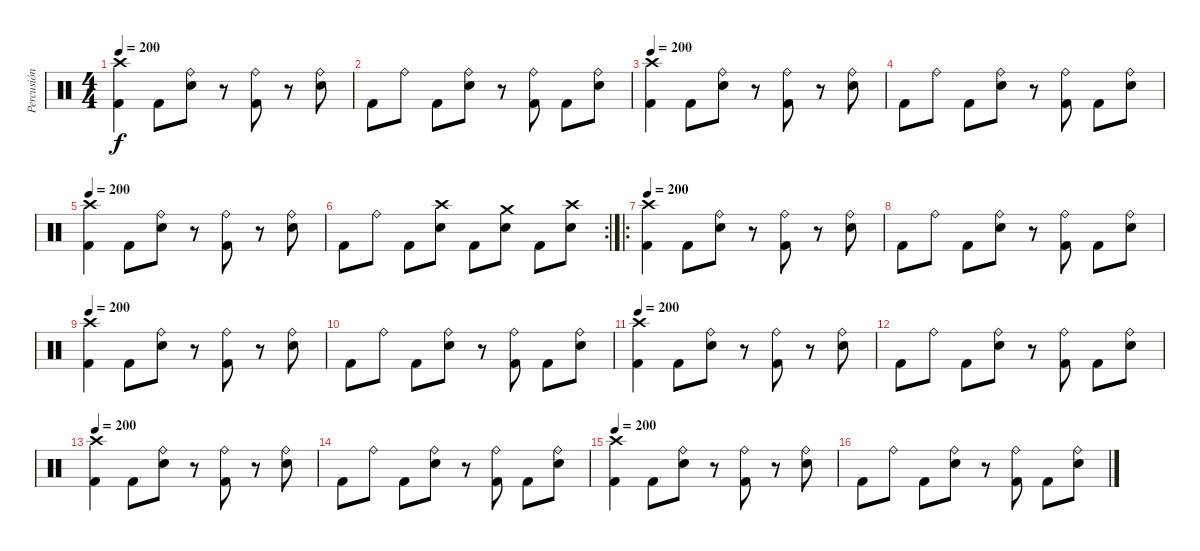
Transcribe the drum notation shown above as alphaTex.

\track ("Percusión" "Percusión") {instrument percussion}
\staff {score}
\articulation defaults
\ts (4 4)
\tempo 200
\clef neutral
\ks c
("Crash high (hit)" "Kick (hit) 2").4{dy f} "Kick (hit) 2".8 ("Ride (bell)" "Electric Snare (hit)").8 r.8 ("Ride (bell)" "Kick (hit) 2").8 r.8 ("Ride (bell)" "Electric Snare (hit)").8 |
"Kick (hit) 2".8 "Ride (bell)".8 "Kick (hit) 2".8 ("Ride (bell)" "Electric Snare (hit)").8 r.8 ("Ride (bell)" "Kick (hit) 2").8 "Kick (hit) 2".8 ("Ride (bell)" "Electric Snare (hit)").8 |
\tempo 200
("Crash high (hit)" "Kick (hit) 2").4 "Kick (hit) 2".8 ("Ride (bell)" "Electric Snare (hit)").8 r.8 ("Ride (bell)" "Kick (hit) 2").8 r.8 ("Ride (bell)" "Electric Snare (hit)").8 |
"Kick (hit) 2".8 "Ride (bell)".8 "Kick (hit) 2".8 ("Ride (bell)" "Electric Snare (hit)").8 r.8 ("Ride (bell)" "Kick (hit) 2").8 "Kick (hit) 2".8 ("Ride (bell)" "Electric Snare (hit)").8 |
\tempo 200
("Crash high (hit)" "Kick (hit) 2").4 "Kick (hit) 2".8 ("Ride (bell)" "Electric Snare (hit)").8 r.8 ("Ride (bell)" "Kick (hit) 2").8 r.8 ("Ride (bell)" "Electric Snare (hit)").8 |
\rc 2 "Kick (hit) 2".8 "Ride (bell)".8 "Kick (hit) 2".8
("Crash high (hit)" "Electric Snare (hit)").8 "Kick (hit) 2".8 ("Crash medium (hit)" "Electric Snare (hit)").8 "Kick (hit) 2".8 ("Crash high (hit)" "Electric Snare (hit)").8 |
\ro
\tempo 200
("Crash high (hit)" "Kick (hit) 2").4 "Kick (hit) 2".8 ("Ride (bell)" "Electric Snare (hit)").8 r.8 ("Ride (bell)" "Kick (hit) 2").8 r.8 ("Ride (bell)" "Electric Snare (hit)").8 |
"Kick (hit) 2".8 "Ride (bell)".8 "Kick (hit) 2".8 ("Ride (bell)" "Electric Snare (hit)").8 r.8 ("Ride (bell)" "Kick (hit) 2").8 "Kick (hit) 2".8 ("Ride (bell)" "Electric Snare (hit)").8 |
\tempo 200
("Crash high (hit)" "Kick (hit) 2").4 "Kick (hit) 2".8 ("Ride (bell)" "Electric Snare (hit)").8 r.8 ("Ride (bell)" "Kick (hit) 2").8 r.8 ("Ride (bell)" "Electric Snare (hit)").8 |
"Kick (hit) 2".8 "Ride (bell)".8 "Kick (hit) 2".8 ("Ride (bell)" "Electric Snare (hit)").8 r.8 ("Ride (bell)" "Kick (hit) 2").8 "Kick (hit) 2".8 ("Ride (bell)" "Electric Snare (hit)").8 |
\tempo 200
("Crash high (hit)" "Kick (hit) 2").4 "Kick (hit) 2".8 ("Ride (bell)" "Electric Snare (hit)").8 r.8 ("Ride (bell)" "Kick (hit) 2").8 r.8 ("Ride (bell)" "Electric Snare (hit)").8 |
"Kick (hit) 2".8 "Ride (bell)".8 "Kick (hit) 2".8 ("Ride (bell)" "Electric Snare (hit)").8 r.8 ("Ride (bell)" "Kick (hit) 2").8 "Kick (hit) 2".8 ("Ride (bell)" "Electric Snare (hit)").8 |
\tempo 200
("Crash high (hit)" "Kick (hit) 2").4 "Kick (hit) 2".8 ("Ride (bell)" "Electric Snare (hit)").8 r.8 ("Ride (bell)" "Kick (hit) 2").8 r.8 ("Ride (bell)" "Electric Snare (hit)").8 |
"Kick (hit) 2".8 "Ride (bell)".8 "Kick (hit) 2".8 ("Ride (bell)" "Electric Snare (hit)").8 r.8 ("Ride (bell)" "Kick (hit) 2").8 "Kick (hit) 2".8 ("Ride (bell)" "Electric Snare (hit)").8 |
\tempo 200
("Crash high (hit)" "Kick (hit) 2").4 "Kick (hit) 2".8 ("Ride (bell)" "Electric Snare (hit)").8 r.8 ("Ride (bell)" "Kick (hit) 2").8 r.8 ("Ride (bell)" "Electric Snare (hit)").8 |
"Kick (hit) 2".8 "Ride (bell)".8 "Kick (hit) 2".8 ("Ride (bell)" "Electric Snare (hit)").8 r.8 ("Ride (bell)" "Kick (hit) 2").8 "Kick (hit) 2".8 ("Ride (bell)" "Electric Snare (hit)").8
